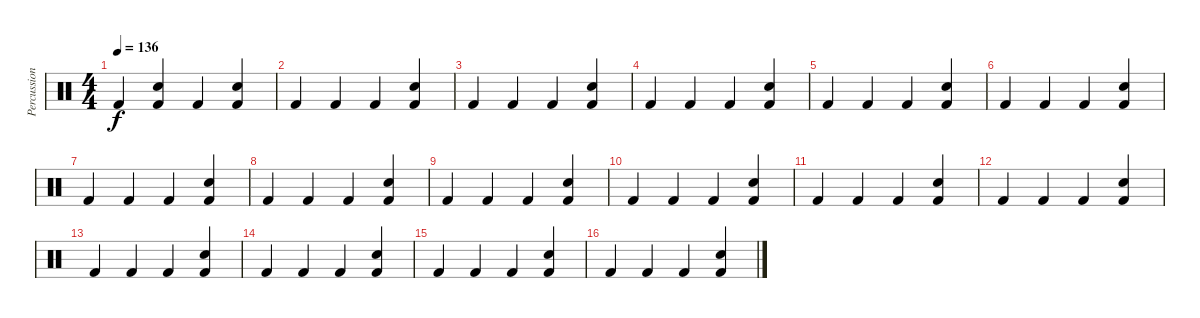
\track ("Percussion" "Percussion") {instrument percussion}
\staff {score}
\articulation defaults
\ts (4 4)
\tempo 136
\clef neutral
\ks c "Kick (hit) 2".4{dy f}
("Kick (hit) 2" "Snare (hit) 2").4 "Kick (hit) 2".4 ("Kick (hit) 2" "Snare (hit) 2").4 |
"Kick (hit) 2".4 "Kick (hit) 2".4 "Kick (hit) 2".4 ("Kick (hit) 2" "Snare (hit) 2").4 |
"Kick (hit) 2".4 "Kick (hit) 2".4 "Kick (hit) 2".4 ("Kick (hit) 2" "Snare (hit) 2").4 |
"Kick (hit) 2".4 "Kick (hit) 2".4 "Kick (hit) 2".4 ("Kick (hit) 2" "Snare (hit) 2").4 |
"Kick (hit) 2".4 "Kick (hit) 2".4 "Kick (hit) 2".4 ("Kick (hit) 2" "Snare (hit) 2").4 |
"Kick (hit) 2".4 "Kick (hit) 2".4 "Kick (hit) 2".4 ("Kick (hit) 2" "Snare (hit) 2").4 |
"Kick (hit) 2".4 "Kick (hit) 2".4 "Kick (hit) 2".4 ("Kick (hit) 2" "Snare (hit) 2").4 |
"Kick (hit) 2".4 "Kick (hit) 2".4 "Kick (hit) 2".4 ("Kick (hit) 2" "Snare (hit) 2").4 |
"Kick (hit) 2".4 "Kick (hit) 2".4 "Kick (hit) 2".4 ("Kick (hit) 2" "Snare (hit) 2").4 |
"Kick (hit) 2".4 "Kick (hit) 2".4 "Kick (hit) 2".4 ("Kick (hit) 2" "Snare (hit) 2").4 |
"Kick (hit) 2".4 "Kick (hit) 2".4 "Kick (hit) 2".4 ("Kick (hit) 2" "Snare (hit) 2").4 |
"Kick (hit) 2".4 "Kick (hit) 2".4 "Kick (hit) 2".4 ("Kick (hit) 2" "Snare (hit) 2").4 |
"Kick (hit) 2".4 "Kick (hit) 2".4 "Kick (hit) 2".4 ("Kick (hit) 2" "Snare (hit) 2").4 |
"Kick (hit) 2".4 "Kick (hit) 2".4 "Kick (hit) 2".4 ("Kick (hit) 2" "Snare (hit) 2").4 |
"Kick (hit) 2".4 "Kick (hit) 2".4 "Kick (hit) 2".4 ("Kick (hit) 2" "Snare (hit) 2").4 |
"Kick (hit) 2".4 "Kick (hit) 2".4 "Kick (hit) 2".4 ("Kick (hit) 2" "Snare (hit) 2").4
